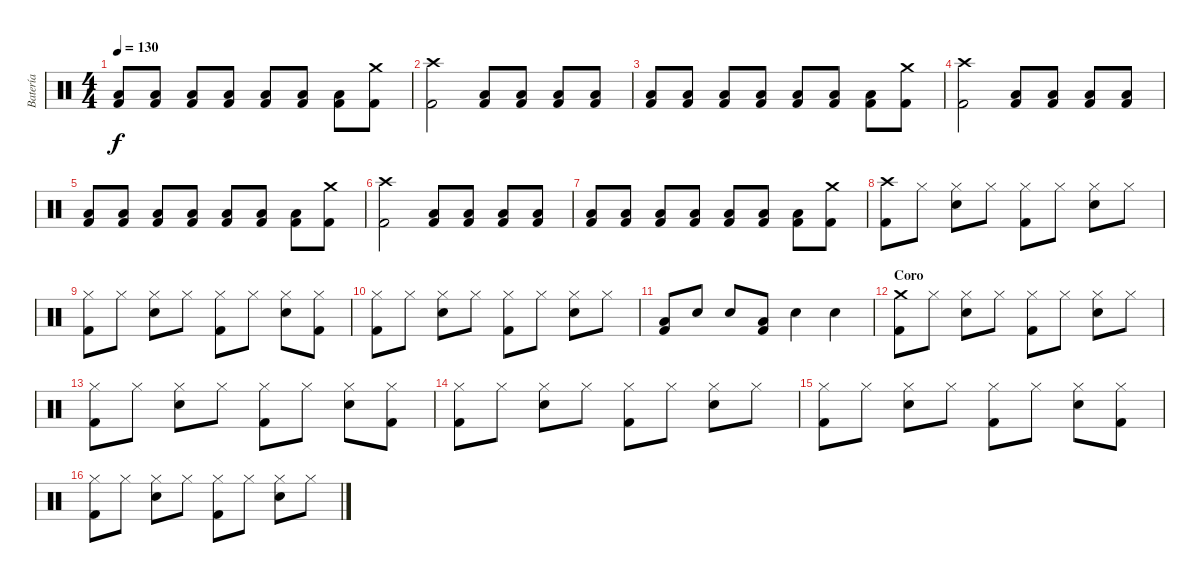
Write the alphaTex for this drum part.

\track ("Batería" "Batería") {instrument percussion}
\staff {score}
\articulation defaults
\ts (4 4)
\tempo 130
\clef neutral
\ks c
("Low Tom (hit)" "Kick (hit) 2").8{dy f} ("Low Tom (hit)" "Kick (hit) 2").8 ("Low Tom (hit)" "Kick (hit) 2").8 ("Low Tom (hit)" "Kick (hit) 2").8 ("Low Tom (hit)" "Kick (hit) 2").8 ("Low Tom (hit)" "Kick (hit) 2").8 ("Low Tom (hit)" "Kick (hit) 2").8 ("Crash medium (hit)" "Kick (hit) 2").8 |
("Crash high (hit)" "Kick (hit) 2").2 ("Low Tom (hit)" "Kick (hit) 2").8 ("Low Tom (hit)" "Kick (hit) 2").8 ("Low Tom (hit)" "Kick (hit) 2").8 ("Low Tom (hit)" "Kick (hit) 2").8 |
("Low Tom (hit)" "Kick (hit) 2").8 ("Low Tom (hit)" "Kick (hit) 2").8 ("Low Tom (hit)" "Kick (hit) 2").8 ("Low Tom (hit)" "Kick (hit) 2").8 ("Low Tom (hit)" "Kick (hit) 2").8 ("Low Tom (hit)" "Kick (hit) 2").8 ("Low Tom (hit)" "Kick (hit) 2").8 ("Crash medium (hit)" "Kick (hit) 2").8 |
("Crash high (hit)" "Kick (hit) 2").2 ("Low Tom (hit)" "Kick (hit) 2").8 ("Low Tom (hit)" "Kick (hit) 2").8 ("Low Tom (hit)" "Kick (hit) 2").8 ("Low Tom (hit)" "Kick (hit) 2").8 |
("Low Tom (hit)" "Kick (hit) 2").8 ("Low Tom (hit)" "Kick (hit) 2").8 ("Low Tom (hit)" "Kick (hit) 2").8 ("Low Tom (hit)" "Kick (hit) 2").8 ("Low Tom (hit)" "Kick (hit) 2").8 ("Low Tom (hit)" "Kick (hit) 2").8 ("Low Tom (hit)" "Kick (hit) 2").8 ("Crash medium (hit)" "Kick (hit) 2").8 |
("Crash high (hit)" "Kick (hit) 2").2 ("Low Tom (hit)" "Kick (hit) 2").8 ("Low Tom (hit)" "Kick (hit) 2").8 ("Low Tom (hit)" "Kick (hit) 2").8 ("Low Tom (hit)" "Kick (hit) 2").8 |
("Low Tom (hit)" "Kick (hit) 2").8 ("Low Tom (hit)" "Kick (hit) 2").8 ("Low Tom (hit)" "Kick (hit) 2").8 ("Low Tom (hit)" "Kick (hit) 2").8 ("Low Tom (hit)" "Kick (hit) 2").8 ("Low Tom (hit)" "Kick (hit) 2").8 ("Low Tom (hit)" "Kick (hit) 2").8 ("Crash medium (hit)" "Kick (hit) 2").8 |
("Crash high (hit)" "Kick (hit) 2").8 "Hi-Hat (closed)".8 ("Hi-Hat (closed)" "Snare (hit) 2").8 "Hi-Hat (closed)".8 ("Hi-Hat (closed)" "Kick (hit) 2").8 "Hi-Hat (closed)".8 ("Hi-Hat (closed)" "Snare (hit) 2").8 "Hi-Hat (closed)".8 |
("Hi-Hat (closed)" "Kick (hit) 2").8 "Hi-Hat (closed)".8 ("Hi-Hat (closed)" "Snare (hit) 2").8 "Hi-Hat (closed)".8 ("Hi-Hat (closed)" "Kick (hit) 2").8 "Hi-Hat (closed)".8 ("Hi-Hat (closed)" "Snare (hit) 2").8 ("Hi-Hat (closed)" "Kick (hit) 2").8 |
("Hi-Hat (closed)" "Kick (hit) 2").8 "Hi-Hat (closed)".8 ("Hi-Hat (closed)" "Snare (hit) 2").8 "Hi-Hat (closed)".8 ("Hi-Hat (closed)" "Kick (hit) 2").8 "Hi-Hat (closed)".8 ("Hi-Hat (closed)" "Snare (hit) 2").8 "Hi-Hat (closed)".8 |
("Low Tom (hit)" "Kick (hit) 2").8 "Snare (hit) 2".8 "Snare (hit) 2".8 ("Low Tom (hit)" "Kick (hit) 2").8 "Snare (hit) 2".4 "Snare (hit) 2".4 |
\section ("" "Coro")
("Crash medium (hit)" "Kick (hit) 2").8 "Hi-Hat (closed)".8 ("Hi-Hat (closed)" "Snare (hit) 2").8 "Hi-Hat (closed)".8 ("Hi-Hat (closed)" "Kick (hit) 2").8 "Hi-Hat (closed)".8 ("Hi-Hat (closed)" "Snare (hit) 2").8 "Hi-Hat (closed)".8 |
("Hi-Hat (closed)" "Kick (hit) 2").8 "Hi-Hat (closed)".8 ("Hi-Hat (closed)" "Snare (hit) 2").8 "Hi-Hat (closed)".8 ("Hi-Hat (closed)" "Kick (hit) 2").8 "Hi-Hat (closed)".8 ("Hi-Hat (closed)" "Snare (hit) 2").8 ("Hi-Hat (closed)" "Kick (hit) 2").8 |
("Hi-Hat (closed)" "Kick (hit) 2").8 "Hi-Hat (closed)".8 ("Hi-Hat (closed)" "Snare (hit) 2").8 "Hi-Hat (closed)".8 ("Hi-Hat (closed)" "Kick (hit) 2").8 "Hi-Hat (closed)".8 ("Hi-Hat (closed)" "Snare (hit) 2").8 "Hi-Hat (closed)".8 |
("Hi-Hat (closed)" "Kick (hit) 2").8 "Hi-Hat (closed)".8 ("Hi-Hat (closed)" "Snare (hit) 2").8 "Hi-Hat (closed)".8 ("Hi-Hat (closed)" "Kick (hit) 2").8 "Hi-Hat (closed)".8 ("Hi-Hat (closed)" "Snare (hit) 2").8 ("Hi-Hat (closed)" "Kick (hit) 2").8 |
("Hi-Hat (closed)" "Kick (hit) 2").8 "Hi-Hat (closed)".8 ("Hi-Hat (closed)" "Snare (hit) 2").8 "Hi-Hat (closed)".8 ("Hi-Hat (closed)" "Kick (hit) 2").8 "Hi-Hat (closed)".8 ("Hi-Hat (closed)" "Snare (hit) 2").8 "Hi-Hat (closed)".8
